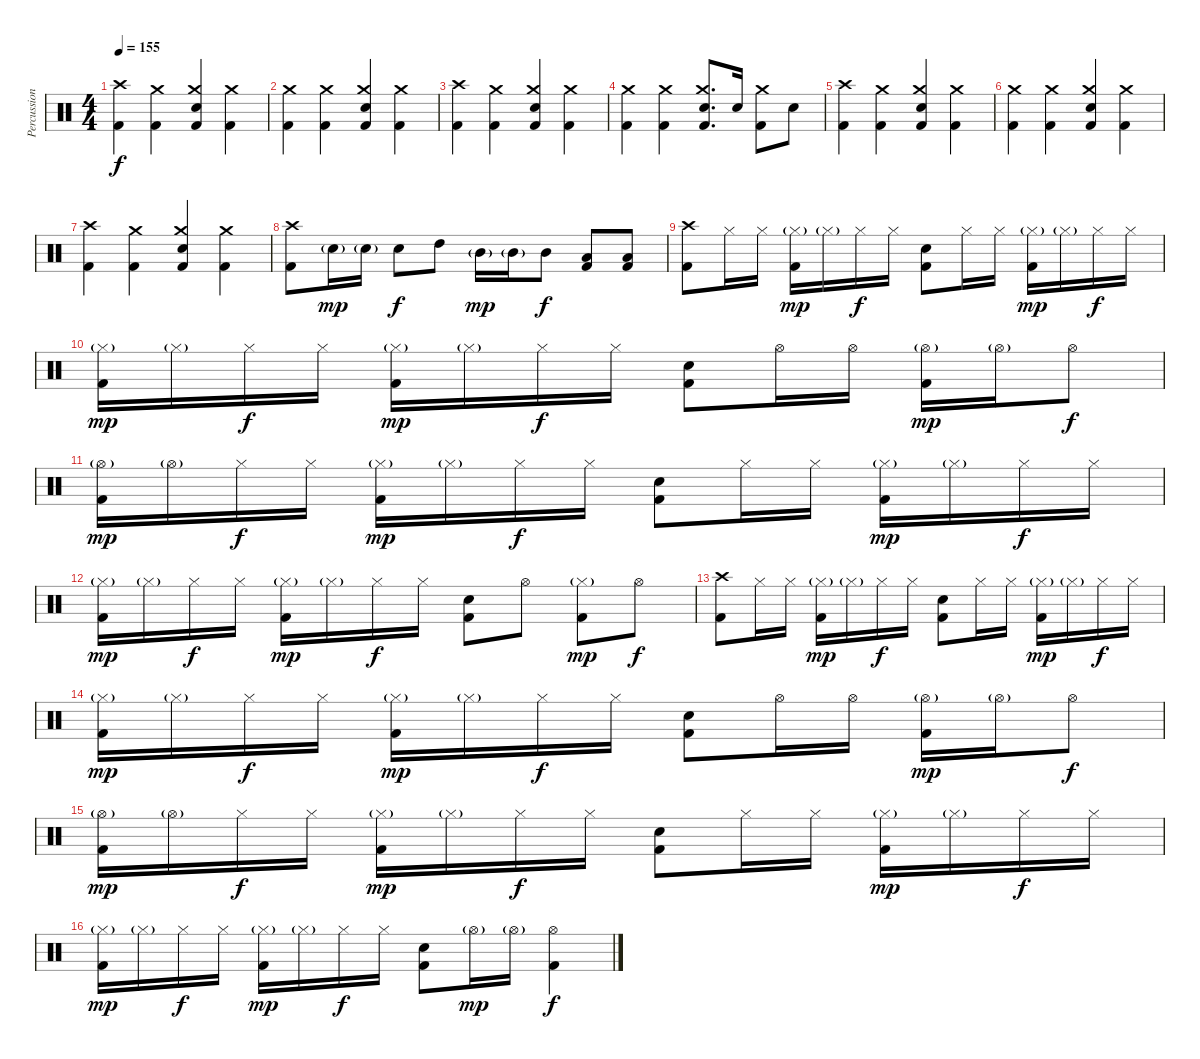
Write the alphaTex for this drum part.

\track ("Percussion" "Percussion") {instrument percussion}
\staff {score}
\articulation defaults
\ts (4 4)
\tempo 155
\clef neutral
\ks c
("Crash high (hit)" "Kick (hit) 2").4{dy f} ("Crash medium (hit)" "Kick (hit) 2").4 ("Crash medium (hit)" "Electric Snare (hit)" "Kick (hit) 2").4 ("Crash medium (hit)" "Kick (hit) 2").4 |
("Crash medium (hit)" "Kick (hit) 2").4 ("Crash medium (hit)" "Kick (hit) 2").4 ("Crash medium (hit)" "Electric Snare (hit)" "Kick (hit) 2").4 ("Crash medium (hit)" "Kick (hit) 2").4 |
("Crash high (hit)" "Kick (hit) 2").4 ("Crash medium (hit)" "Kick (hit) 2").4 ("Crash medium (hit)" "Electric Snare (hit)" "Kick (hit) 2").4 ("Crash medium (hit)" "Kick (hit) 2").4 |
("Crash medium (hit)" "Kick (hit) 2").4 ("Crash medium (hit)" "Kick (hit) 2").4 ("Crash medium (hit)" "Electric Snare (hit)" "Kick (hit) 2").8{d} "Electric Snare (hit)".16 ("Crash medium (hit)" "Kick (hit) 2").8 "Electric Snare (hit)".8 |
("Crash high (hit)" "Kick (hit) 2").4 ("Crash medium (hit)" "Kick (hit) 2").4 ("Crash medium (hit)" "Electric Snare (hit)" "Kick (hit) 2").4 ("Crash medium (hit)" "Kick (hit) 2").4 |
("Crash medium (hit)" "Kick (hit) 2").4 ("Crash medium (hit)" "Kick (hit) 2").4 ("Crash medium (hit)" "Electric Snare (hit)" "Kick (hit) 2").4 ("Crash medium (hit)" "Kick (hit) 2").4 |
("Crash high (hit)" "Kick (hit) 2").4 ("Crash medium (hit)" "Kick (hit) 2").4 ("Crash medium (hit)" "Electric Snare (hit)" "Kick (hit) 2").4 ("Crash medium (hit)" "Kick (hit) 2").4 |
("Crash high (hit)" "Kick (hit) 2").8 "Electric Snare (hit)"{g}.16{dy mp} "Electric Snare (hit)"{g}.16 "Electric Snare (hit)".8{dy f} "High Tom (hit)".8 "Mid Tom (hit)"{g}.16{dy mp} "Mid Tom (hit)"{g}.16 "Mid Tom (hit)".8{dy f} ("Low Tom (hit)" "Kick (hit) 2").8 ("Low Tom (hit)" "Kick (hit) 2").8 |
("Crash high (hit)" "Kick (hit) 2").8 "Hi-Hat (closed)".16 "Hi-Hat (closed)".16 ("Hi-Hat (closed)"{g} "Kick (hit) 2").16{dy mp} "Hi-Hat (closed)"{g}.16 "Hi-Hat (closed)".16{dy f} "Hi-Hat (closed)".16 ("Electric Snare (hit)" "Kick (hit) 2").8 "Hi-Hat (closed)".16 "Hi-Hat (closed)".16 ("Hi-Hat (closed)"{g} "Kick (hit) 2").16{dy mp} "Hi-Hat (closed)"{g}.16 "Hi-Hat (closed)".16{dy f} "Hi-Hat (closed)".16 |
("Hi-Hat (closed)"{g} "Kick (hit) 2").16{dy mp} "Hi-Hat (closed)"{g}.16 "Hi-Hat (closed)".16{dy f} "Hi-Hat (closed)".16 ("Hi-Hat (closed)"{g} "Kick (hit) 2").16{dy mp} "Hi-Hat (closed)"{g}.16 "Hi-Hat (closed)".16{dy f} "Hi-Hat (closed)".16 ("Electric Snare (hit)" "Kick (hit) 2").8 "Hi-Hat (open)".16 "Hi-Hat (open)".16 ("Hi-Hat (open)"{g} "Kick (hit) 2").16{dy mp} "Hi-Hat (open)"{g}.16 "Hi-Hat (open)".8{dy f} |
("Hi-Hat (open)"{g} "Kick (hit) 2").16{dy mp} "Hi-Hat (open)"{g}.16 "Hi-Hat (closed)".16{dy f} "Hi-Hat (closed)".16 ("Hi-Hat (closed)"{g} "Kick (hit) 2").16{dy mp} "Hi-Hat (closed)"{g}.16 "Hi-Hat (closed)".16{dy f} "Hi-Hat (closed)".16 ("Electric Snare (hit)" "Kick (hit) 2").8 "Hi-Hat (closed)".16 "Hi-Hat (closed)".16 ("Hi-Hat (closed)"{g} "Kick (hit) 2").16{dy mp} "Hi-Hat (closed)"{g}.16 "Hi-Hat (closed)".16{dy f} "Hi-Hat (closed)".16 |
("Hi-Hat (closed)"{g} "Kick (hit) 2").16{dy mp} "Hi-Hat (closed)"{g}.16 "Hi-Hat (closed)".16{dy f} "Hi-Hat (closed)".16 ("Hi-Hat (closed)"{g} "Kick (hit) 2").16{dy mp} "Hi-Hat (closed)"{g}.16 "Hi-Hat (closed)".16{dy f} "Hi-Hat (closed)".16 ("Electric Snare (hit)" "Kick (hit) 2").8 "Hi-Hat (open)".8 ("Hi-Hat (closed)"{g} "Kick (hit) 2").8{dy mp} "Hi-Hat (open)".8{dy f} |
("Crash high (hit)" "Kick (hit) 2").8 "Hi-Hat (closed)".16 "Hi-Hat (closed)".16 ("Hi-Hat (closed)"{g} "Kick (hit) 2").16{dy mp} "Hi-Hat (closed)"{g}.16 "Hi-Hat (closed)".16{dy f} "Hi-Hat (closed)".16 ("Electric Snare (hit)" "Kick (hit) 2").8 "Hi-Hat (closed)".16 "Hi-Hat (closed)".16 ("Hi-Hat (closed)"{g} "Kick (hit) 2").16{dy mp} "Hi-Hat (closed)"{g}.16 "Hi-Hat (closed)".16{dy f} "Hi-Hat (closed)".16 |
("Hi-Hat (closed)"{g} "Kick (hit) 2").16{dy mp} "Hi-Hat (closed)"{g}.16 "Hi-Hat (closed)".16{dy f} "Hi-Hat (closed)".16 ("Hi-Hat (closed)"{g} "Kick (hit) 2").16{dy mp} "Hi-Hat (closed)"{g}.16 "Hi-Hat (closed)".16{dy f} "Hi-Hat (closed)".16 ("Electric Snare (hit)" "Kick (hit) 2").8 "Hi-Hat (open)".16 "Hi-Hat (open)".16 ("Hi-Hat (open)"{g} "Kick (hit) 2").16{dy mp} "Hi-Hat (open)"{g}.16 "Hi-Hat (open)".8{dy f} |
("Hi-Hat (open)"{g} "Kick (hit) 2").16{dy mp} "Hi-Hat (open)"{g}.16 "Hi-Hat (closed)".16{dy f} "Hi-Hat (closed)".16 ("Hi-Hat (closed)"{g} "Kick (hit) 2").16{dy mp} "Hi-Hat (closed)"{g}.16 "Hi-Hat (closed)".16{dy f} "Hi-Hat (closed)".16 ("Electric Snare (hit)" "Kick (hit) 2").8 "Hi-Hat (closed)".16 "Hi-Hat (closed)".16 ("Hi-Hat (closed)"{g} "Kick (hit) 2").16{dy mp} "Hi-Hat (closed)"{g}.16 "Hi-Hat (closed)".16{dy f} "Hi-Hat (closed)".16 |
("Hi-Hat (closed)"{g} "Kick (hit) 2").16{dy mp} "Hi-Hat (closed)"{g}.16 "Hi-Hat (closed)".16{dy f} "Hi-Hat (closed)".16 ("Hi-Hat (closed)"{g} "Kick (hit) 2").16{dy mp} "Hi-Hat (closed)"{g}.16 "Hi-Hat (closed)".16{dy f} "Hi-Hat (closed)".16 ("Electric Snare (hit)" "Kick (hit) 2").8 "Hi-Hat (open)"{g}.16{dy mp} "Hi-Hat (open)"{g}.16 ("Hi-Hat (open)" "Kick (hit) 2").4{dy f}
